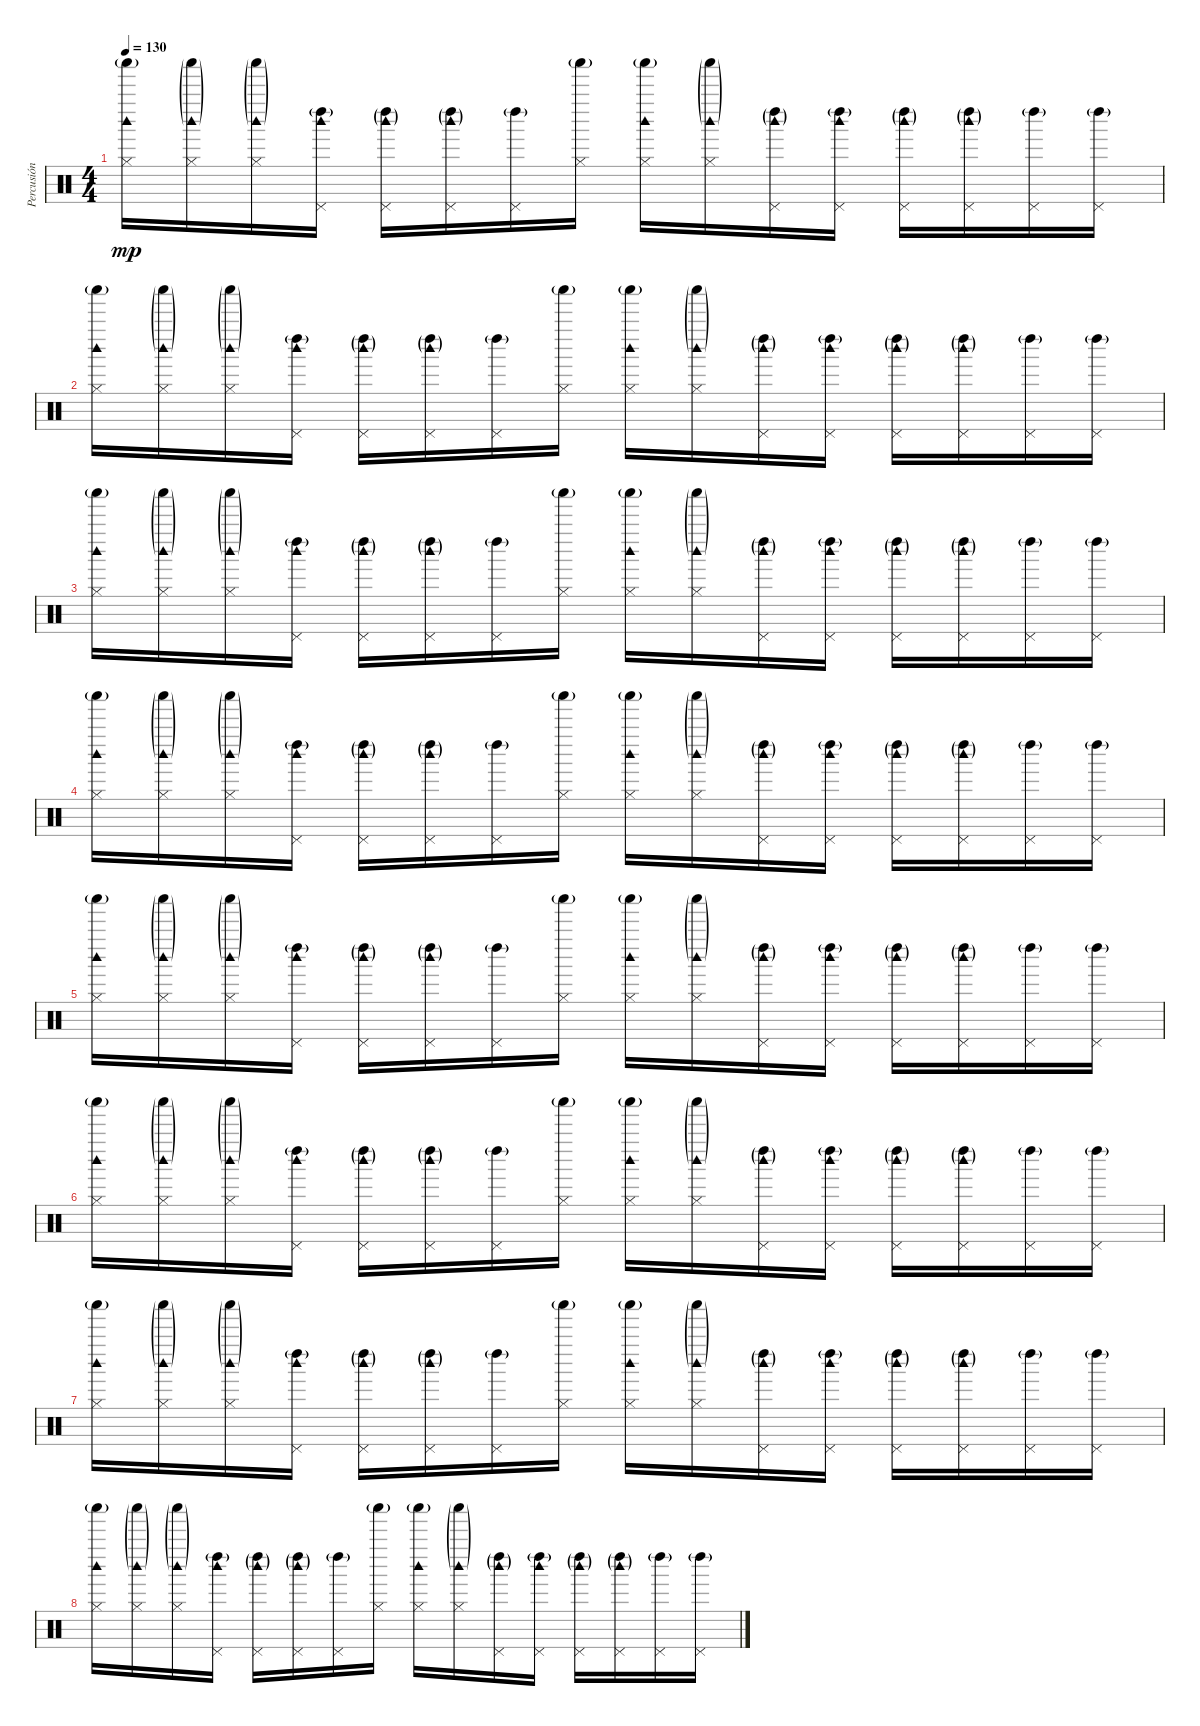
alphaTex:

\track ("Percusión" "Percusión") {instrument percussion}
\staff {score}
\articulation defaults
\ts (4 4)
\tempo 130
\clef neutral
\ks c
("Shaker (hit)"{g} "Hi-Hat (closed)" "Woodblock high (hit)").16{dy mp} ("Shaker (hit)"{g} "Hi-Hat (closed)" "Woodblock high (hit)"{g}).16 ("Shaker (hit)"{g} "Hi-Hat (closed)" "Woodblock high (hit)"{g}).16 ("Left Maraca (hit)"{g} "Pedal Hi-Hat (hit)" "Woodblock high (hit)").16 ("Left Maraca (hit)"{g} "Pedal Hi-Hat (hit)" "Woodblock high (hit)"{g}).16 ("Left Maraca (hit)"{g} "Pedal Hi-Hat (hit)" "Woodblock high (hit)"{g}).16 ("Left Maraca (hit)"{g} "Pedal Hi-Hat (hit)").16 ("Shaker (hit)"{g} "Hi-Hat (closed)").16 ("Shaker (hit)"{g} "Hi-Hat (closed)" "Woodblock high (hit)").16 ("Shaker (hit)"{g} "Hi-Hat (closed)" "Woodblock high (hit)"{g}).16 ("Left Maraca (hit)"{g} "Pedal Hi-Hat (hit)" "Woodblock high (hit)"{g}).16 ("Left Maraca (hit)"{g} "Pedal Hi-Hat (hit)" "Woodblock high (hit)").16 ("Left Maraca (hit)"{g} "Pedal Hi-Hat (hit)" "Woodblock high (hit)"{g}).16 ("Left Maraca (hit)"{g} "Pedal Hi-Hat (hit)" "Woodblock high (hit)"{g}).16 ("Left Maraca (hit)"{g} "Pedal Hi-Hat (hit)").16 ("Left Maraca (hit)"{g} "Pedal Hi-Hat (hit)").16 |
("Shaker (hit)"{g} "Hi-Hat (closed)" "Woodblock high (hit)").16 ("Shaker (hit)"{g} "Hi-Hat (closed)" "Woodblock high (hit)"{g}).16 ("Shaker (hit)"{g} "Hi-Hat (closed)" "Woodblock high (hit)"{g}).16 ("Left Maraca (hit)"{g} "Pedal Hi-Hat (hit)" "Woodblock high (hit)").16 ("Left Maraca (hit)"{g} "Pedal Hi-Hat (hit)" "Woodblock high (hit)"{g}).16 ("Left Maraca (hit)"{g} "Pedal Hi-Hat (hit)" "Woodblock high (hit)"{g}).16 ("Left Maraca (hit)"{g} "Pedal Hi-Hat (hit)").16 ("Shaker (hit)"{g} "Hi-Hat (closed)").16 ("Shaker (hit)"{g} "Hi-Hat (closed)" "Woodblock high (hit)").16 ("Shaker (hit)"{g} "Hi-Hat (closed)" "Woodblock high (hit)"{g}).16 ("Left Maraca (hit)"{g} "Pedal Hi-Hat (hit)" "Woodblock high (hit)"{g}).16 ("Left Maraca (hit)"{g} "Pedal Hi-Hat (hit)" "Woodblock high (hit)").16 ("Left Maraca (hit)"{g} "Pedal Hi-Hat (hit)" "Woodblock high (hit)"{g}).16 ("Left Maraca (hit)"{g} "Pedal Hi-Hat (hit)" "Woodblock high (hit)"{g}).16 ("Left Maraca (hit)"{g} "Pedal Hi-Hat (hit)").16 ("Left Maraca (hit)"{g} "Pedal Hi-Hat (hit)").16 |
("Shaker (hit)"{g} "Hi-Hat (closed)" "Woodblock high (hit)").16 ("Shaker (hit)"{g} "Hi-Hat (closed)" "Woodblock high (hit)"{g}).16 ("Shaker (hit)"{g} "Hi-Hat (closed)" "Woodblock high (hit)"{g}).16 ("Left Maraca (hit)"{g} "Pedal Hi-Hat (hit)" "Woodblock high (hit)").16 ("Left Maraca (hit)"{g} "Pedal Hi-Hat (hit)" "Woodblock high (hit)"{g}).16 ("Left Maraca (hit)"{g} "Pedal Hi-Hat (hit)" "Woodblock high (hit)"{g}).16 ("Left Maraca (hit)"{g} "Pedal Hi-Hat (hit)").16 ("Shaker (hit)"{g} "Hi-Hat (closed)").16 ("Shaker (hit)"{g} "Hi-Hat (closed)" "Woodblock high (hit)").16 ("Shaker (hit)"{g} "Hi-Hat (closed)" "Woodblock high (hit)"{g}).16 ("Left Maraca (hit)"{g} "Pedal Hi-Hat (hit)" "Woodblock high (hit)"{g}).16 ("Left Maraca (hit)"{g} "Pedal Hi-Hat (hit)" "Woodblock high (hit)").16 ("Left Maraca (hit)"{g} "Pedal Hi-Hat (hit)" "Woodblock high (hit)"{g}).16 ("Left Maraca (hit)"{g} "Pedal Hi-Hat (hit)" "Woodblock high (hit)"{g}).16 ("Left Maraca (hit)"{g} "Pedal Hi-Hat (hit)").16 ("Left Maraca (hit)"{g} "Pedal Hi-Hat (hit)").16 |
("Shaker (hit)"{g} "Hi-Hat (closed)" "Woodblock high (hit)").16 ("Shaker (hit)"{g} "Hi-Hat (closed)" "Woodblock high (hit)"{g}).16 ("Shaker (hit)"{g} "Hi-Hat (closed)" "Woodblock high (hit)"{g}).16 ("Left Maraca (hit)"{g} "Pedal Hi-Hat (hit)" "Woodblock high (hit)").16 ("Left Maraca (hit)"{g} "Pedal Hi-Hat (hit)" "Woodblock high (hit)"{g}).16 ("Left Maraca (hit)"{g} "Pedal Hi-Hat (hit)" "Woodblock high (hit)"{g}).16 ("Left Maraca (hit)"{g} "Pedal Hi-Hat (hit)").16 ("Shaker (hit)"{g} "Hi-Hat (closed)").16 ("Shaker (hit)"{g} "Hi-Hat (closed)" "Woodblock high (hit)").16 ("Shaker (hit)"{g} "Hi-Hat (closed)" "Woodblock high (hit)"{g}).16 ("Left Maraca (hit)"{g} "Pedal Hi-Hat (hit)" "Woodblock high (hit)"{g}).16 ("Left Maraca (hit)"{g} "Pedal Hi-Hat (hit)" "Woodblock high (hit)").16 ("Left Maraca (hit)"{g} "Pedal Hi-Hat (hit)" "Woodblock high (hit)"{g}).16 ("Left Maraca (hit)"{g} "Pedal Hi-Hat (hit)" "Woodblock high (hit)"{g}).16 ("Left Maraca (hit)"{g} "Pedal Hi-Hat (hit)").16 ("Left Maraca (hit)"{g} "Pedal Hi-Hat (hit)").16 |
("Shaker (hit)"{g} "Hi-Hat (closed)" "Woodblock high (hit)").16 ("Shaker (hit)"{g} "Hi-Hat (closed)" "Woodblock high (hit)"{g}).16 ("Shaker (hit)"{g} "Hi-Hat (closed)" "Woodblock high (hit)"{g}).16 ("Left Maraca (hit)"{g} "Pedal Hi-Hat (hit)" "Woodblock high (hit)").16 ("Left Maraca (hit)"{g} "Pedal Hi-Hat (hit)" "Woodblock high (hit)"{g}).16 ("Left Maraca (hit)"{g} "Pedal Hi-Hat (hit)" "Woodblock high (hit)"{g}).16 ("Left Maraca (hit)"{g} "Pedal Hi-Hat (hit)").16 ("Shaker (hit)"{g} "Hi-Hat (closed)").16 ("Shaker (hit)"{g} "Hi-Hat (closed)" "Woodblock high (hit)").16 ("Shaker (hit)"{g} "Hi-Hat (closed)" "Woodblock high (hit)"{g}).16 ("Left Maraca (hit)"{g} "Pedal Hi-Hat (hit)" "Woodblock high (hit)"{g}).16 ("Left Maraca (hit)"{g} "Pedal Hi-Hat (hit)" "Woodblock high (hit)").16 ("Left Maraca (hit)"{g} "Pedal Hi-Hat (hit)" "Woodblock high (hit)"{g}).16 ("Left Maraca (hit)"{g} "Pedal Hi-Hat (hit)" "Woodblock high (hit)"{g}).16 ("Left Maraca (hit)"{g} "Pedal Hi-Hat (hit)").16 ("Left Maraca (hit)"{g} "Pedal Hi-Hat (hit)").16 |
("Shaker (hit)"{g} "Hi-Hat (closed)" "Woodblock high (hit)").16 ("Shaker (hit)"{g} "Hi-Hat (closed)" "Woodblock high (hit)"{g}).16 ("Shaker (hit)"{g} "Hi-Hat (closed)" "Woodblock high (hit)"{g}).16 ("Left Maraca (hit)"{g} "Pedal Hi-Hat (hit)" "Woodblock high (hit)").16 ("Left Maraca (hit)"{g} "Pedal Hi-Hat (hit)" "Woodblock high (hit)"{g}).16 ("Left Maraca (hit)"{g} "Pedal Hi-Hat (hit)" "Woodblock high (hit)"{g}).16 ("Left Maraca (hit)"{g} "Pedal Hi-Hat (hit)").16 ("Shaker (hit)"{g} "Hi-Hat (closed)").16 ("Shaker (hit)"{g} "Hi-Hat (closed)" "Woodblock high (hit)").16 ("Shaker (hit)"{g} "Hi-Hat (closed)" "Woodblock high (hit)"{g}).16 ("Left Maraca (hit)"{g} "Pedal Hi-Hat (hit)" "Woodblock high (hit)"{g}).16 ("Left Maraca (hit)"{g} "Pedal Hi-Hat (hit)" "Woodblock high (hit)").16 ("Left Maraca (hit)"{g} "Pedal Hi-Hat (hit)" "Woodblock high (hit)"{g}).16 ("Left Maraca (hit)"{g} "Pedal Hi-Hat (hit)" "Woodblock high (hit)"{g}).16 ("Left Maraca (hit)"{g} "Pedal Hi-Hat (hit)").16 ("Left Maraca (hit)"{g} "Pedal Hi-Hat (hit)").16 |
("Shaker (hit)"{g} "Hi-Hat (closed)" "Woodblock high (hit)").16 ("Shaker (hit)"{g} "Hi-Hat (closed)" "Woodblock high (hit)"{g}).16 ("Shaker (hit)"{g} "Hi-Hat (closed)" "Woodblock high (hit)"{g}).16 ("Left Maraca (hit)"{g} "Pedal Hi-Hat (hit)" "Woodblock high (hit)").16 ("Left Maraca (hit)"{g} "Pedal Hi-Hat (hit)" "Woodblock high (hit)"{g}).16 ("Left Maraca (hit)"{g} "Pedal Hi-Hat (hit)" "Woodblock high (hit)"{g}).16 ("Left Maraca (hit)"{g} "Pedal Hi-Hat (hit)").16 ("Shaker (hit)"{g} "Hi-Hat (closed)").16 ("Shaker (hit)"{g} "Hi-Hat (closed)" "Woodblock high (hit)").16 ("Shaker (hit)"{g} "Hi-Hat (closed)" "Woodblock high (hit)"{g}).16 ("Left Maraca (hit)"{g} "Pedal Hi-Hat (hit)" "Woodblock high (hit)"{g}).16 ("Left Maraca (hit)"{g} "Pedal Hi-Hat (hit)" "Woodblock high (hit)").16 ("Left Maraca (hit)"{g} "Pedal Hi-Hat (hit)" "Woodblock high (hit)"{g}).16 ("Left Maraca (hit)"{g} "Pedal Hi-Hat (hit)" "Woodblock high (hit)"{g}).16 ("Left Maraca (hit)"{g} "Pedal Hi-Hat (hit)").16 ("Left Maraca (hit)"{g} "Pedal Hi-Hat (hit)").16 |
("Shaker (hit)"{g} "Hi-Hat (closed)" "Woodblock high (hit)").16 ("Shaker (hit)"{g} "Hi-Hat (closed)" "Woodblock high (hit)"{g}).16 ("Shaker (hit)"{g} "Hi-Hat (closed)" "Woodblock high (hit)"{g}).16 ("Left Maraca (hit)"{g} "Pedal Hi-Hat (hit)" "Woodblock high (hit)").16 ("Left Maraca (hit)"{g} "Pedal Hi-Hat (hit)" "Woodblock high (hit)"{g}).16 ("Left Maraca (hit)"{g} "Pedal Hi-Hat (hit)" "Woodblock high (hit)"{g}).16 ("Left Maraca (hit)"{g} "Pedal Hi-Hat (hit)").16 ("Shaker (hit)"{g} "Hi-Hat (closed)").16 ("Shaker (hit)"{g} "Hi-Hat (closed)" "Woodblock high (hit)").16 ("Shaker (hit)"{g} "Hi-Hat (closed)" "Woodblock high (hit)"{g}).16 ("Left Maraca (hit)"{g} "Pedal Hi-Hat (hit)" "Woodblock high (hit)"{g}).16 ("Left Maraca (hit)"{g} "Pedal Hi-Hat (hit)" "Woodblock high (hit)").16 ("Left Maraca (hit)"{g} "Pedal Hi-Hat (hit)" "Woodblock high (hit)"{g}).16 ("Left Maraca (hit)"{g} "Pedal Hi-Hat (hit)" "Woodblock high (hit)"{g}).16 ("Left Maraca (hit)"{g} "Pedal Hi-Hat (hit)").16 ("Left Maraca (hit)"{g} "Pedal Hi-Hat (hit)").16
